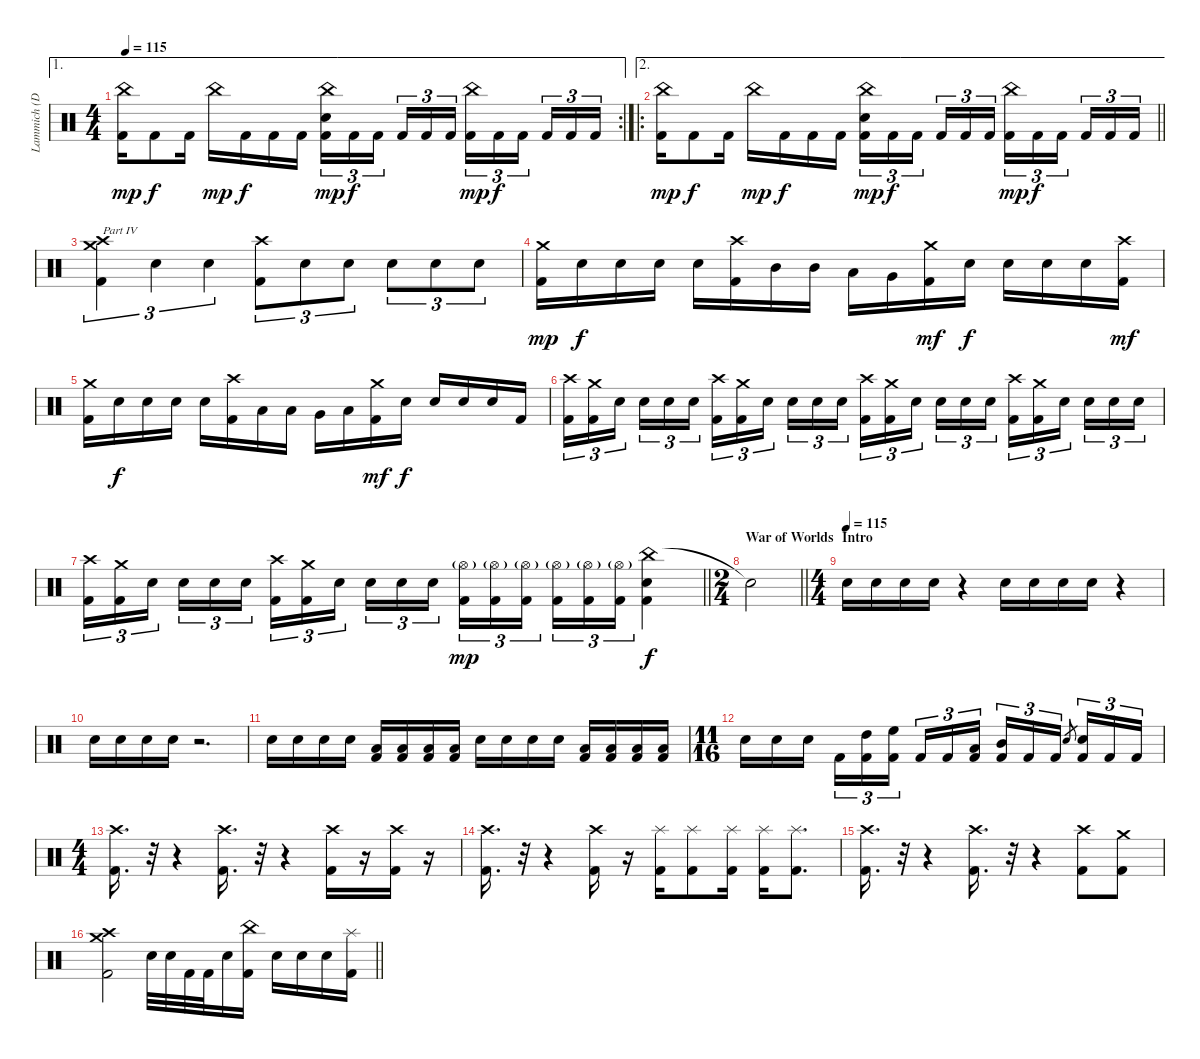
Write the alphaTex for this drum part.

\track ("Lammich (Drums)" "Lammich (D") {instrument percussion}
\staff {score}
\articulation defaults
\ae 1
\rc 2
\ts (4 4)
\tempo 115
\clef neutral
\ks c
("China (hit)" "Kick (hit) 2").16{dy mp} "Kick (hit) 2".8{dy f} "Kick (hit) 2".16 "China (hit)".16{dy mp} "Kick (hit) 2".16{dy f} "Kick (hit) 2".16 "Kick (hit) 2".16 ("China (hit)" "Electric Snare (hit)" "Kick (hit) 2").16{tu (3 2) dy mp} "Kick (hit) 2".16{tu (3 2) dy f} "Kick (hit) 2".16{tu (3 2) beam splitsecondary} "Kick (hit) 2".16{tu (3 2)} "Kick (hit) 2".16{tu (3 2)} "Kick (hit) 2".16{tu (3 2)} ("China (hit)" "Kick (hit) 2").16{tu (3 2) dy mp} "Kick (hit) 2".16{tu (3 2) dy f} "Kick (hit) 2".16{tu (3 2) beam splitsecondary} "Kick (hit) 2".16{tu (3 2)} "Kick (hit) 2".16{tu (3 2)} "Kick (hit) 2".16{tu (3 2)} |
\ae 2
\ro
\barLineRight lightlight
("China (hit)" "Kick (hit) 2").16{dy mp} "Kick (hit) 2".8{dy f} "Kick (hit) 2".16 "China (hit)".16{dy mp} "Kick (hit) 2".16{dy f} "Kick (hit) 2".16 "Kick (hit) 2".16 ("China (hit)" "Electric Snare (hit)" "Kick (hit) 2").16{tu (3 2) dy mp} "Kick (hit) 2".16{tu (3 2) dy f} "Kick (hit) 2".16{tu (3 2) beam splitsecondary} "Kick (hit) 2".16{tu (3 2)} "Kick (hit) 2".16{tu (3 2)} "Kick (hit) 2".16{tu (3 2)} ("China (hit)" "Kick (hit) 2").16{tu (3 2) dy mp} "Kick (hit) 2".16{tu (3 2) dy f} "Kick (hit) 2".16{tu (3 2) beam splitsecondary} "Kick (hit) 2".16{tu (3 2)} "Kick (hit) 2".16{tu (3 2)} "Kick (hit) 2".16{tu (3 2)} |
("Crash medium (hit)" "Crash high (hit)" "Kick (hit) 2").4{tu (3 2) txt "Part IV"} "Electric Snare (hit)".4{tu (3 2)} "Electric Snare (hit)".4{tu (3 2)} ("Crash high (hit)" "Kick (hit) 2").8{tu (3 2)} "Electric Snare (hit)".8{tu (3 2)} "Electric Snare (hit)".8{tu (3 2)} "Electric Snare (hit)".8{tu (3 2)} "Electric Snare (hit)".8{tu (3 2)} "Electric Snare (hit)".8{tu (3 2)} |
("Crash medium (hit)" "Kick (hit) 2").16{dy mp} "Electric Snare (hit)".16{dy f} "Electric Snare (hit)".16 "Electric Snare (hit)".16 "Electric Snare (hit)".16 ("Crash high (hit)" "Kick (hit) 2").16 "Mid Tom (hit)".16 "Mid Tom (hit)".16 "Low Tom (hit)".16 "Very Low Tom (hit)".16 ("Crash medium (hit)" "Kick (hit) 2").16{dy mf} "Electric Snare (hit)".16{dy f} "Electric Snare (hit)".16 "Electric Snare (hit)".16 "Electric Snare (hit)".16 ("Crash high (hit)" "Kick (hit) 2").16{dy mf} |
("Crash medium (hit)" "Kick (hit) 2").16 "Electric Snare (hit)".16{dy f} "Electric Snare (hit)".16 "Electric Snare (hit)".16 "Electric Snare (hit)".16 ("Crash high (hit)" "Kick (hit) 2").16 "Low Tom (hit)".16 "Low Tom (hit)".16 "Very Low Tom (hit)".16 "Low Floor Tom (hit)".16 ("Crash medium (hit)" "Kick (hit) 2").16{dy mf} "Electric Snare (hit)".16{dy f} "Electric Snare (hit)".16 "Electric Snare (hit)".16 "Electric Snare (hit)".16 "Kick (hit) 2".16 |
("Crash high (hit)" "Kick (hit) 2").16{tu (3 2)} ("Crash medium (hit)" "Kick (hit) 2").16{tu (3 2)} "Electric Snare (hit)".16{tu (3 2) beam splitsecondary} "Electric Snare (hit)".16{tu (3 2)} "Electric Snare (hit)".16{tu (3 2)} "Electric Snare (hit)".16{tu (3 2)} ("Crash high (hit)" "Kick (hit) 2").16{tu (3 2)} ("Crash medium (hit)" "Kick (hit) 2").16{tu (3 2)} "Electric Snare (hit)".16{tu (3 2) beam splitsecondary} "Electric Snare (hit)".16{tu (3 2)} "Electric Snare (hit)".16{tu (3 2)} "Electric Snare (hit)".16{tu (3 2)} ("Crash high (hit)" "Kick (hit) 2").16{tu (3 2)} ("Crash medium (hit)" "Kick (hit) 2").16{tu (3 2)} "Electric Snare (hit)".16{tu (3 2) beam splitsecondary} "Electric Snare (hit)".16{tu (3 2)} "Electric Snare (hit)".16{tu (3 2)} "Electric Snare (hit)".16{tu (3 2)} ("Crash high (hit)" "Kick (hit) 2").16{tu (3 2)} ("Crash medium (hit)" "Kick (hit) 2").16{tu (3 2)} "Electric Snare (hit)".16{tu (3 2) beam splitsecondary} "Electric Snare (hit)".16{tu (3 2)} "Electric Snare (hit)".16{tu (3 2)} "Electric Snare (hit)".16{tu (3 2)} |
\barLineRight lightlight
("Crash high (hit)" "Kick (hit) 2").16{tu (3 2)} ("Crash medium (hit)" "Kick (hit) 2").16{tu (3 2)} "Electric Snare (hit)".16{tu (3 2) beam splitsecondary} "Electric Snare (hit)".16{tu (3 2)} "Electric Snare (hit)".16{tu (3 2)} "Electric Snare (hit)".16{tu (3 2)} ("Crash high (hit)" "Kick (hit) 2").16{tu (3 2)} ("Crash medium (hit)" "Kick (hit) 2").16{tu (3 2)} "Electric Snare (hit)".16{tu (3 2) beam splitsecondary} "Electric Snare (hit)".16{tu (3 2)} "Electric Snare (hit)".16{tu (3 2)} "Electric Snare (hit)".16{tu (3 2)} ("Hi-Hat (open)"{g} "Kick (hit) 2").16{tu (3 2) dy mp} ("Hi-Hat (open)"{g} "Kick (hit) 2").16{tu (3 2)} ("Hi-Hat (open)"{g} "Kick (hit) 2").16{tu (3 2) beam splitsecondary} ("Hi-Hat (open)"{g} "Kick (hit) 2").16{tu (3 2)} ("Hi-Hat (open)"{g} "Kick (hit) 2").16{tu (3 2)} ("Hi-Hat (open)"{g} "Kick (hit) 2").16{tu (3 2)} ("China (hit)" "Electric Snare (hit)" "Kick (hit) 2").4{dy f} |
\ts (2 4)
\section ("" "War of Worlds")
\barLineRight lightlight "Snare (hit)"{t}.2
|
\ts (4 4)
\section ("" "Intro")
\tempo (115)
"Electric Snare (hit)".16{volume 16 balance 8} "Electric Snare (hit)".16 "Electric Snare (hit)".16 "Electric Snare (hit)".16 r.4 "Electric Snare (hit)".16 "Electric Snare (hit)".16 "Electric Snare (hit)".16 "Electric Snare (hit)".16 r.4 |
"Electric Snare (hit)".16 "Electric Snare (hit)".16 "Electric Snare (hit)".16 "Electric Snare (hit)".16 r.2{d} |
"Electric Snare (hit)".16 "Electric Snare (hit)".16 "Electric Snare (hit)".16 "Electric Snare (hit)".16 ("Low Floor Tom (hit)" "Kick (hit) 2").16 ("Low Floor Tom (hit)" "Kick (hit) 2").16 ("Low Floor Tom (hit)" "Kick (hit) 2").16 ("Low Floor Tom (hit)" "Kick (hit) 2").16 "Electric Snare (hit)".16 "Electric Snare (hit)".16 "Electric Snare (hit)".16 "Electric Snare (hit)".16 ("Low Floor Tom (hit)" "Kick (hit) 2").16 ("Low Floor Tom (hit)" "Kick (hit) 2").16 ("Low Floor Tom (hit)" "Kick (hit) 2").16 ("Low Floor Tom (hit)" "Kick (hit) 2").16 |
\ts (11 16)
"Electric Snare (hit)".16 "Electric Snare (hit)".16 "Electric Snare (hit)".16 "Kick (hit) 2".16{tu (3 2)} ("High Tom (hit)" "Kick (hit) 2").16{tu (3 2)} ("High Floor Tom (hit)" "Kick (hit) 2").16{tu (3 2)} "Kick (hit) 2".16{tu (3 2)} "Kick (hit) 2".16{tu (3 2)} ("Low Tom (hit)" "Kick (hit) 2").16{tu (3 2)} ("Mid Tom (hit)" "Kick (hit) 2").16{tu (3 2)} "Kick (hit) 2".16{tu (3 2)} "Kick (hit) 2".16{tu (3 2)} "Electric Snare (hit)".8{gr} ("Electric Snare (hit)" "Kick (hit) 2").16{tu (3 2)} "Kick (hit) 2".16{tu (3 2)} "Kick (hit) 2".16{tu (3 2)} |
\ts (4 4)
("Crash high (hit)" "Kick (hit) 2").16{d} r.32{volume 0} r.4 ("Crash high (hit)" "Kick (hit) 2").16{d volume 16} r.32{volume 0} r.4 ("Crash high (hit)" "Kick (hit) 2").16{volume 16} r.16{volume 0} ("Crash high (hit)" "Kick (hit) 2").16{volume 16} r.16{volume 0} |
("Crash high (hit)" "Kick (hit) 2").16{d volume 16} r.32{volume 0} r.4 ("Crash high (hit)" "Kick (hit) 2").16{volume 16} r.16{volume 0} ("Splash (hit)" "Kick (hit) 2").16{volume 16} ("Splash (hit)" "Kick (hit) 2").8 ("Splash (hit)" "Kick (hit) 2").16 ("Splash (hit)" "Kick (hit) 2").16 ("Splash (hit)" "Kick (hit) 2").8{d} |
("Crash high (hit)" "Kick (hit) 2").16{d} r.32{volume 0} r.4 ("Crash high (hit)" "Kick (hit) 2").16{d volume 16} r.32{volume 0} r.4 ("Crash high (hit)" "Kick (hit) 2").8{volume 16} ("Crash medium (hit)" "Kick (hit) 2").8 |
\barLineRight lightlight
("Crash medium (hit)" "Crash high (hit)" "Kick (hit) 2").2 "Electric Snare (hit)".32 "Electric Snare (hit)".32 "Kick (hit) 2".32 "Kick (hit) 2".32 "Electric Snare (hit)".16 ("China (hit)" "Kick (hit) 2").16 "Electric Snare (hit)".16 "Electric Snare (hit)".16 "Electric Snare (hit)".16 ("Splash (hit)" "Kick (hit) 2").16
